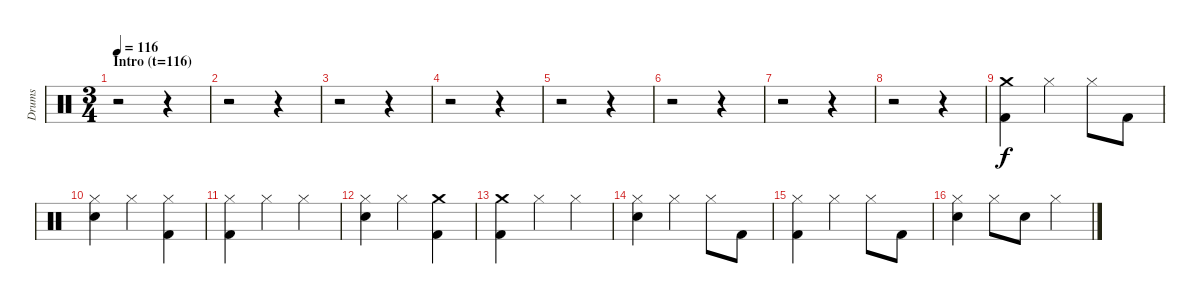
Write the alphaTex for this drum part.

\track ("Drums" "Drums") {instrument percussion}
\staff {score}
\articulation defaults
\ts (3 4)
\section ("" "Intro (t=116)")
\tempo 116
\clef neutral
\ks c
r.2{dy f} r.4 |
r.2 r.4 |
r.2 r.4 |
r.2 r.4 |
r.2 r.4 |
r.2 r.4 |
r.2 r.4 |
r.2 r.4 |
("Kick (hit) 2" "Crash medium (hit)").4 "Hi-Hat (closed)".4 "Hi-Hat (closed)".8 "Kick (hit) 2".8 |
("Electric Snare (hit)" "Hi-Hat (closed)").4 "Hi-Hat (closed)".4 ("Kick (hit) 2" "Hi-Hat (closed)").4 |
("Kick (hit) 2" "Hi-Hat (closed)").4 "Hi-Hat (closed)".4 "Hi-Hat (closed)".4 |
("Electric Snare (hit)" "Hi-Hat (closed)").4 "Hi-Hat (closed)".4 ("Kick (hit) 2" "Crash medium (hit)").4 |
("Kick (hit) 2" "Crash medium (hit)").4 "Hi-Hat (closed)".4 "Hi-Hat (closed)".4 |
("Electric Snare (hit)" "Hi-Hat (closed)").4 "Hi-Hat (closed)".4 "Hi-Hat (closed)".8 "Kick (hit) 2".8 |
("Kick (hit) 2" "Hi-Hat (closed)").4 "Hi-Hat (closed)".4 "Hi-Hat (closed)".8 "Kick (hit) 2".8 |
("Electric Snare (hit)" "Hi-Hat (closed)").4 "Hi-Hat (closed)".8 "Electric Snare (hit)".8 "Hi-Hat (closed)".4
